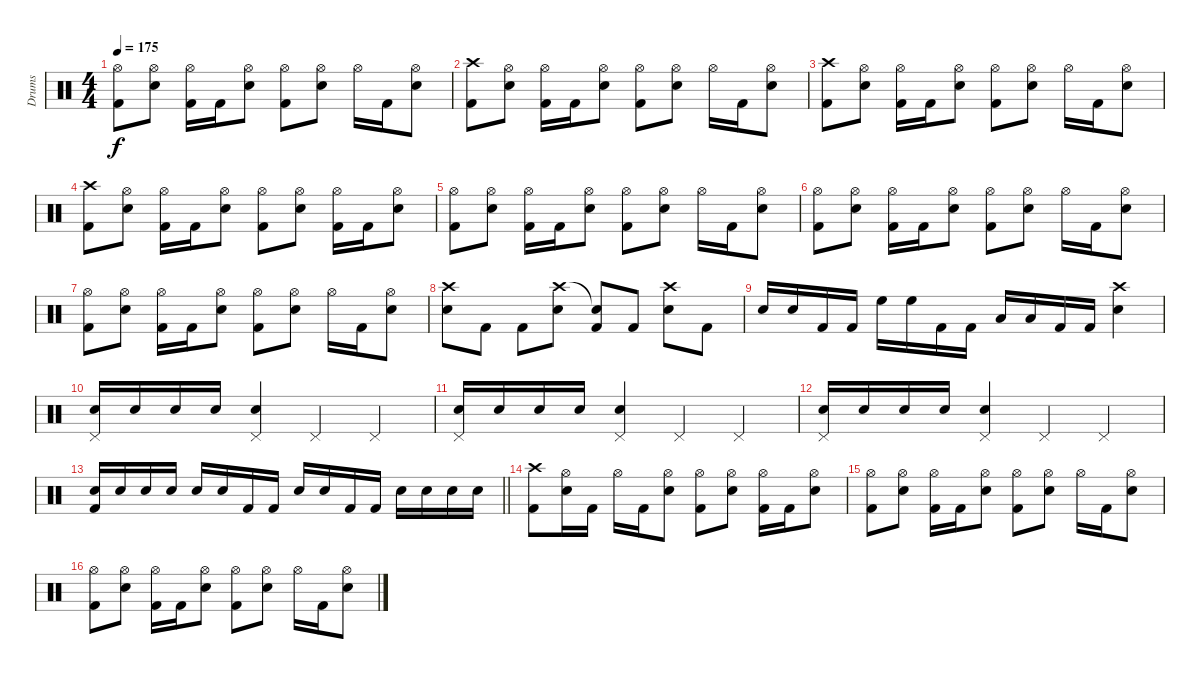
\track ("Drums" "Drums") {instrument percussion}
\staff {score}
\articulation defaults
\ts (4 4)
\tempo 175
\clef neutral
\ks c
("Hi-Hat (open)" "Kick (hit) 2").8{dy f} ("Hi-Hat (open)" "Snare (hit) 2").8 ("Hi-Hat (open)" "Kick (hit) 2").16 "Kick (hit) 2".16 ("Hi-Hat (open)" "Snare (hit) 2").8 ("Hi-Hat (open)" "Kick (hit) 2").8 ("Hi-Hat (open)" "Snare (hit) 2").8 "Hi-Hat (open)".16 "Kick (hit) 2".16 ("Hi-Hat (open)" "Snare (hit) 2").8 |
("Crash high (hit)" "Kick (hit) 2").8 ("Hi-Hat (open)" "Snare (hit) 2").8 ("Hi-Hat (open)" "Kick (hit) 2").16 "Kick (hit) 2".16 ("Hi-Hat (open)" "Snare (hit) 2").8 ("Hi-Hat (open)" "Kick (hit) 2").8 ("Hi-Hat (open)" "Snare (hit) 2").8 "Hi-Hat (open)".16 "Kick (hit) 2".16 ("Hi-Hat (open)" "Snare (hit) 2").8 |
("Crash high (hit)" "Kick (hit) 2").8 ("Hi-Hat (open)" "Snare (hit) 2").8 ("Hi-Hat (open)" "Kick (hit) 2").16 "Kick (hit) 2".16 ("Hi-Hat (open)" "Snare (hit) 2").8 ("Hi-Hat (open)" "Kick (hit) 2").8 ("Hi-Hat (open)" "Snare (hit) 2").8 "Hi-Hat (open)".16 "Kick (hit) 2".16 ("Hi-Hat (open)" "Snare (hit) 2").8 |
("Crash high (hit)" "Kick (hit) 2").8 ("Hi-Hat (open)" "Snare (hit) 2").8 ("Hi-Hat (open)" "Kick (hit) 2").16 "Kick (hit) 2".16 ("Hi-Hat (open)" "Snare (hit) 2").8 ("Hi-Hat (open)" "Kick (hit) 2").8 ("Hi-Hat (open)" "Snare (hit) 2").8 ("Hi-Hat (open)" "Kick (hit) 2").16 "Kick (hit) 2".16 ("Hi-Hat (open)" "Snare (hit) 2").8 |
("Hi-Hat (open)" "Kick (hit) 2").8 ("Hi-Hat (open)" "Snare (hit) 2").8 ("Hi-Hat (open)" "Kick (hit) 2").16 "Kick (hit) 2".16 ("Hi-Hat (open)" "Snare (hit) 2").8 ("Hi-Hat (open)" "Kick (hit) 2").8 ("Hi-Hat (open)" "Snare (hit) 2").8 "Hi-Hat (open)".16 "Kick (hit) 2".16 ("Hi-Hat (open)" "Snare (hit) 2").8 |
("Hi-Hat (open)" "Kick (hit) 2").8 ("Hi-Hat (open)" "Snare (hit) 2").8 ("Hi-Hat (open)" "Kick (hit) 2").16 "Kick (hit) 2".16 ("Hi-Hat (open)" "Snare (hit) 2").8 ("Hi-Hat (open)" "Kick (hit) 2").8 ("Hi-Hat (open)" "Snare (hit) 2").8 "Hi-Hat (open)".16 "Kick (hit) 2".16 ("Hi-Hat (open)" "Snare (hit) 2").8 |
("Hi-Hat (open)" "Kick (hit) 2").8 ("Hi-Hat (open)" "Snare (hit) 2").8 ("Hi-Hat (open)" "Kick (hit) 2").16 "Kick (hit) 2".16 ("Hi-Hat (open)" "Snare (hit) 2").8 ("Hi-Hat (open)" "Kick (hit) 2").8 ("Hi-Hat (open)" "Snare (hit) 2").8 "Hi-Hat (open)".16 "Kick (hit) 2".16 ("Hi-Hat (open)" "Snare (hit) 2").8 |
("Crash high (hit)" "Snare (hit) 2").8 "Kick (hit) 2".8 "Kick (hit) 2".8 ("Crash high (hit)" "Snare (hit) 2").8 ("Snare (hit)"{t} "Kick (hit) 2").8 "Kick (hit) 2".8 ("Crash high (hit)" "Snare (hit) 2").8 "Kick (hit) 2".8 |
"Snare (hit) 2".16 "Snare (hit) 2".16 "Kick (hit) 2".16 "Kick (hit) 2".16 "High Floor Tom (hit)".16 "High Floor Tom (hit)".16 "Kick (hit) 2".16 "Kick (hit) 2".16 "Low Floor Tom (hit)".16 "Low Floor Tom (hit)".16 "Kick (hit) 2".16 "Kick (hit) 2".16 ("Crash high (hit)" "Snare (hit) 2").4 |
("Pedal Hi-Hat (hit)" "Snare (hit) 2").16 "Snare (hit) 2".16 "Snare (hit) 2".16 "Snare (hit) 2".16 ("Pedal Hi-Hat (hit)" "Snare (hit) 2").4 "Pedal Hi-Hat (hit)".4 "Pedal Hi-Hat (hit)".4 |
("Pedal Hi-Hat (hit)" "Snare (hit) 2").16 "Snare (hit) 2".16 "Snare (hit) 2".16 "Snare (hit) 2".16 ("Pedal Hi-Hat (hit)" "Snare (hit) 2").4 "Pedal Hi-Hat (hit)".4 "Pedal Hi-Hat (hit)".4 |
("Pedal Hi-Hat (hit)" "Snare (hit) 2").16 "Snare (hit) 2".16 "Snare (hit) 2".16 "Snare (hit) 2".16 ("Pedal Hi-Hat (hit)" "Snare (hit) 2").4 "Pedal Hi-Hat (hit)".4 "Pedal Hi-Hat (hit)".4 |
\barLineRight lightlight
("Snare (hit) 2" "Kick (hit) 2").16 "Snare (hit) 2".16 "Snare (hit) 2".16 "Snare (hit) 2".16 "Snare (hit) 2".16 "Snare (hit) 2".16 "Kick (hit) 2".16 "Kick (hit) 2".16 "Snare (hit) 2".16 "Snare (hit) 2".16 "Kick (hit) 2".16 "Kick (hit) 2".16 "Snare (hit) 2".16 "Snare (hit) 2".16 "Snare (hit) 2".16 "Snare (hit) 2".16 |
("Crash high (hit)" "Kick (hit) 2").8 ("Hi-Hat (open)" "Snare (hit) 2").16 "Kick (hit) 2".16 "Hi-Hat (open)".16 "Kick (hit) 2".16 ("Hi-Hat (open)" "Snare (hit) 2").8 ("Hi-Hat (open)" "Kick (hit) 2").8 ("Hi-Hat (open)" "Snare (hit) 2").8 ("Hi-Hat (open)" "Kick (hit) 2").16 "Kick (hit) 2".16 ("Hi-Hat (open)" "Snare (hit) 2").8 |
("Hi-Hat (open)" "Kick (hit) 2").8 ("Hi-Hat (open)" "Snare (hit) 2").8 ("Hi-Hat (open)" "Kick (hit) 2").16 "Kick (hit) 2".16 ("Hi-Hat (open)" "Snare (hit) 2").8 ("Hi-Hat (open)" "Kick (hit) 2").8 ("Hi-Hat (open)" "Snare (hit) 2").8 "Hi-Hat (open)".16 "Kick (hit) 2".16 ("Hi-Hat (open)" "Snare (hit) 2").8 |
("Hi-Hat (open)" "Kick (hit) 2").8 ("Hi-Hat (open)" "Snare (hit) 2").8 ("Hi-Hat (open)" "Kick (hit) 2").16 "Kick (hit) 2".16 ("Hi-Hat (open)" "Snare (hit) 2").8 ("Hi-Hat (open)" "Kick (hit) 2").8 ("Hi-Hat (open)" "Snare (hit) 2").8 "Hi-Hat (open)".16 "Kick (hit) 2".16 ("Hi-Hat (open)" "Snare (hit) 2").8
